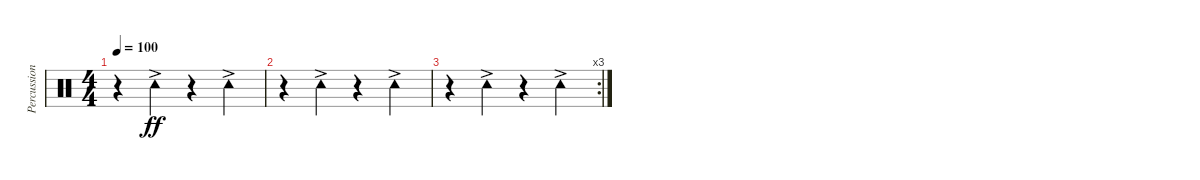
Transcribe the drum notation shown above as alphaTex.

\track ("Percussion" "Percussion") {instrument percussion}
\staff {score}
\articulation defaults
\ts (4 4)
\tempo 100
\clef neutral
\ks c
r.4{dy ff} "Tambourine (hit)"{ac}.4 r.4 "Tambourine (hit)"{ac}.4 |
r.4 "Tambourine (hit)"{ac}.4 r.4 "Tambourine (hit)"{ac}.4 |
\rc 3
r.4 "Tambourine (hit)"{ac}.4 r.4 "Tambourine (hit)"{ac}.4
